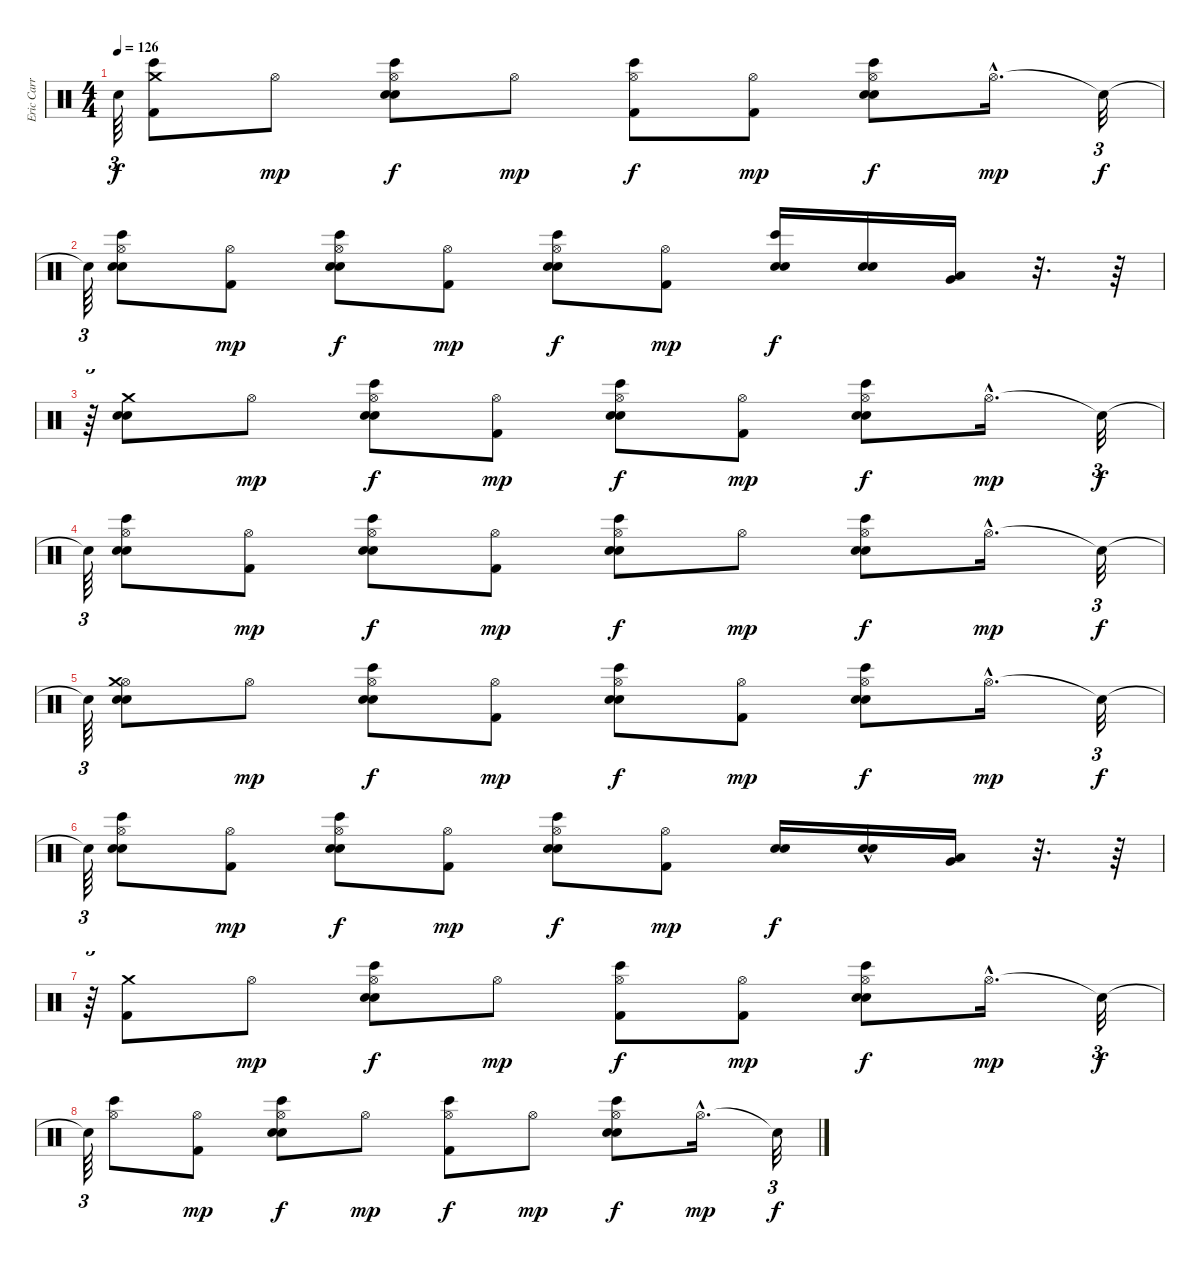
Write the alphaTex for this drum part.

\track ("Eric Carr" "Eric Carr") {instrument percussion}
\staff {score}
\articulation defaults
\ts (4 4)
\tempo 126
\clef neutral
\ks c "Snare (hit)"{t}.64{tu (3 2) dy f}
("Bongo High (hit)" "Crash medium (hit)" "Kick (hit) 2").8 "Hi-Hat (open)".8{dy mp} ("Bongo High (hit)" "Hi-Hat (open)" "Snare (hit) 2" "Electric Snare (hit)").8{dy f} "Hi-Hat (open)".8{dy mp} ("Bongo High (hit)" "Kick (hit) 2" "Hi-Hat (open)").8{dy f} ("Kick (hit) 2" "Hi-Hat (open)").8{dy mp} ("Bongo High (hit)" "Electric Snare (hit)" "Snare (hit) 2" "Hi-Hat (open)").8{dy f} "Hi-Hat (open)"{hac}.16{d dy mp} "Snare (hit)"{t}.32{tu (3 2) dy f} |
"Snare (hit)"{t}.64{tu (3 2)} ("Bongo High (hit)" "Snare (hit) 2" "Electric Snare (hit)" "Hi-Hat (open)").8 ("Kick (hit) 2" "Hi-Hat (open)").8{dy mp} ("Bongo High (hit)" "Hi-Hat (open)" "Snare (hit) 2" "Electric Snare (hit)").8{dy f} ("Kick (hit) 2" "Hi-Hat (open)").8{dy mp} ("Bongo High (hit)" "Electric Snare (hit)" "Snare (hit) 2" "Hi-Hat (open)").8{dy f} ("Kick (hit) 2" "Hi-Hat (open)").8{dy mp} ("Bongo High (hit)" "Electric Snare (hit)" "Snare (hit) 2").16{dy f} ("Electric Snare (hit)" "Snare (hit) 2").16 ("Low Tom (hit)" "Very Low Tom (hit)").16 r.32{d} r.64 |
r.64{tu (3 2)} ("Crash medium (hit)" "Snare (hit) 2" "Electric Snare (hit)").8 "Hi-Hat (open)".8{dy mp} ("Hi-Hat (open)" "Bongo High (hit)" "Electric Snare (hit)" "Snare (hit) 2").8{dy f} ("Hi-Hat (open)" "Kick (hit) 2").8{dy mp} ("Hi-Hat (open)" "Bongo High (hit)" "Electric Snare (hit)" "Snare (hit) 2").8{dy f} ("Hi-Hat (open)" "Kick (hit) 2").8{dy mp} ("Hi-Hat (open)" "Bongo High (hit)" "Electric Snare (hit)" "Snare (hit) 2").8{dy f} "Hi-Hat (open)"{hac}.16{d dy mp} "Snare (hit)"{t}.32{tu (3 2) dy f} |
"Snare (hit)"{t}.64{tu (3 2)} ("Bongo High (hit)" "Hi-Hat (open)" "Electric Snare (hit)" "Snare (hit) 2").8 ("Hi-Hat (open)" "Kick (hit) 2").8{dy mp} ("Bongo High (hit)" "Hi-Hat (open)" "Electric Snare (hit)" "Snare (hit) 2").8{dy f} ("Hi-Hat (open)" "Kick (hit) 2").8{dy mp} ("Bongo High (hit)" "Hi-Hat (open)" "Electric Snare (hit)" "Snare (hit) 2").8{dy f} "Hi-Hat (open)".8{dy mp} ("Snare (hit) 2" "Bongo High (hit)" "Hi-Hat (open)" "Electric Snare (hit)").8{dy f} "Hi-Hat (open)"{hac}.16{d dy mp} "Snare (hit)"{t}.32{tu (3 2) dy f} |
"Snare (hit)"{t}.64{tu (3 2)} ("Hi-Hat (open)" "Crash medium (hit)" "Snare (hit) 2" "Electric Snare (hit)").8 "Hi-Hat (open)".8{dy mp} ("Hi-Hat (open)" "Bongo High (hit)" "Electric Snare (hit)" "Snare (hit) 2").8{dy f} ("Hi-Hat (open)" "Kick (hit) 2").8{dy mp} ("Hi-Hat (open)" "Bongo High (hit)" "Electric Snare (hit)" "Snare (hit) 2").8{dy f} ("Hi-Hat (open)" "Kick (hit) 2").8{dy mp} ("Hi-Hat (open)" "Bongo High (hit)" "Electric Snare (hit)" "Snare (hit) 2").8{dy f} "Hi-Hat (open)"{hac}.16{d dy mp} "Snare (hit)"{t}.32{tu (3 2) dy f} |
"Snare (hit)"{t}.64{tu (3 2)} ("Bongo High (hit)" "Hi-Hat (open)" "Electric Snare (hit)" "Snare (hit) 2").8 ("Hi-Hat (open)" "Kick (hit) 2").8{dy mp} ("Bongo High (hit)" "Hi-Hat (open)" "Electric Snare (hit)" "Snare (hit) 2").8{dy f} ("Hi-Hat (open)" "Kick (hit) 2").8{dy mp} ("Bongo High (hit)" "Hi-Hat (open)" "Electric Snare (hit)" "Snare (hit) 2").8{dy f} ("Hi-Hat (open)" "Kick (hit) 2").8{dy mp} ("Electric Snare (hit)" "Snare (hit) 2").16{dy f} ("Electric Snare (hit)"{hac} "Snare (hit) 2"{hac}).16 ("Very Low Tom (hit)" "Low Floor Tom (hit)").16 r.32{d} r.64 |
r.64{tu (3 2)} ("Crash medium (hit)" "Kick (hit) 2").8 "Hi-Hat (open)".8{dy mp} ("Bongo High (hit)" "Hi-Hat (open)" "Snare (hit) 2" "Electric Snare (hit)").8{dy f} "Hi-Hat (open)".8{dy mp} ("Bongo High (hit)" "Kick (hit) 2" "Hi-Hat (open)").8{dy f} ("Kick (hit) 2" "Hi-Hat (open)").8{dy mp} ("Bongo High (hit)" "Electric Snare (hit)" "Snare (hit) 2" "Hi-Hat (open)").8{dy f} "Hi-Hat (open)"{hac}.16{d dy mp} "Snare (hit)"{t}.32{tu (3 2) dy f} |
"Snare (hit)"{t}.64{tu (3 2)} ("Bongo High (hit)" "Hi-Hat (open)").8 ("Kick (hit) 2" "Hi-Hat (open)").8{dy mp} ("Bongo High (hit)" "Hi-Hat (open)" "Snare (hit) 2" "Electric Snare (hit)").8{dy f} "Hi-Hat (open)".8{dy mp} ("Bongo High (hit)" "Kick (hit) 2" "Hi-Hat (open)").8{dy f} "Hi-Hat (open)".8{dy mp} ("Bongo High (hit)" "Electric Snare (hit)" "Snare (hit) 2" "Hi-Hat (open)").8{dy f} "Hi-Hat (open)"{hac}.16{d dy mp} "Snare (hit)"{t}.32{tu (3 2) dy f}
